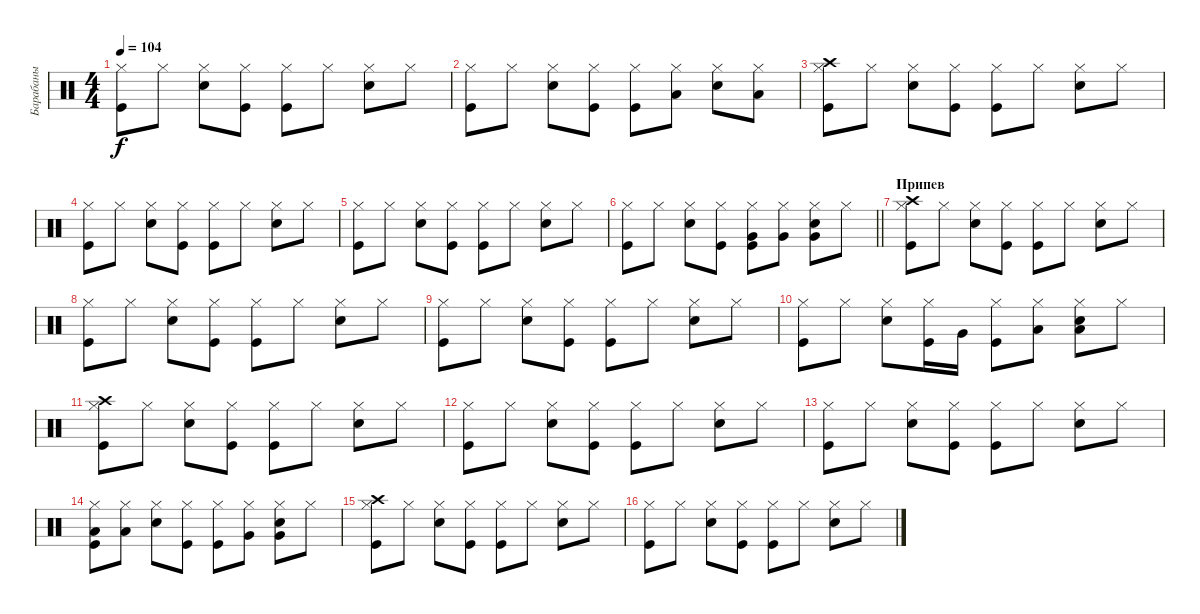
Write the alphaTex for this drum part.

\track ("Барабаны" "Барабаны") {instrument percussion}
\staff {score}
\articulation defaults
\ts (4 4)
\tempo 104
\clef neutral
\ks c
("Kick (hit)" "Hi-Hat (closed)").8{dy f} "Hi-Hat (closed)".8 ("Snare (hit) 2" "Hi-Hat (closed)").8 ("Kick (hit)" "Hi-Hat (closed)").8 ("Kick (hit)" "Hi-Hat (closed)").8 "Hi-Hat (closed)".8 ("Snare (hit) 2" "Hi-Hat (closed)").8 "Hi-Hat (closed)".8 |
("Kick (hit)" "Hi-Hat (closed)").8 "Hi-Hat (closed)".8 ("Snare (hit) 2" "Hi-Hat (closed)").8 ("Kick (hit)" "Hi-Hat (closed)").8 ("Kick (hit)" "Hi-Hat (closed)").8 ("Hi-Hat (closed)" "Low Tom (hit)").8 ("Snare (hit) 2" "Hi-Hat (closed)").8 ("Hi-Hat (closed)" "Low Tom (hit)").8 |
("Kick (hit)" "Hi-Hat (closed)" "Crash high (hit)").8 "Hi-Hat (closed)".8 ("Snare (hit) 2" "Hi-Hat (closed)").8 ("Kick (hit)" "Hi-Hat (closed)").8 ("Kick (hit)" "Hi-Hat (closed)").8 "Hi-Hat (closed)".8 ("Snare (hit) 2" "Hi-Hat (closed)").8 "Hi-Hat (closed)".8 |
("Kick (hit)" "Hi-Hat (closed)").8 "Hi-Hat (closed)".8 ("Snare (hit) 2" "Hi-Hat (closed)").8 ("Kick (hit)" "Hi-Hat (closed)").8 ("Kick (hit)" "Hi-Hat (closed)").8 "Hi-Hat (closed)".8 ("Snare (hit) 2" "Hi-Hat (closed)").8 "Hi-Hat (closed)".8 |
("Kick (hit)" "Hi-Hat (closed)").8 "Hi-Hat (closed)".8 ("Snare (hit) 2" "Hi-Hat (closed)").8 ("Kick (hit)" "Hi-Hat (closed)").8 ("Kick (hit)" "Hi-Hat (closed)").8 "Hi-Hat (closed)".8 ("Snare (hit) 2" "Hi-Hat (closed)").8 "Hi-Hat (closed)".8 |
\barLineRight lightlight
("Kick (hit)" "Hi-Hat (closed)").8 "Hi-Hat (closed)".8 ("Snare (hit) 2" "Hi-Hat (closed)").8 ("Kick (hit)" "Hi-Hat (closed)").8 ("Kick (hit)" "Hi-Hat (closed)" "Very Low Tom (hit)").8 ("Hi-Hat (closed)" "Very Low Tom (hit)").8 ("Snare (hit) 2" "Hi-Hat (closed)" "Very Low Tom (hit)").8 "Hi-Hat (closed)".8 |
\section ("" "Припев")
("Kick (hit)" "Hi-Hat (closed)" "Crash high (hit)").8 "Hi-Hat (closed)".8 ("Snare (hit) 2" "Hi-Hat (closed)").8 ("Kick (hit)" "Hi-Hat (closed)").8 ("Kick (hit)" "Hi-Hat (closed)").8 "Hi-Hat (closed)".8 ("Snare (hit) 2" "Hi-Hat (closed)").8 "Hi-Hat (closed)".8 |
("Kick (hit)" "Hi-Hat (closed)").8 "Hi-Hat (closed)".8 ("Snare (hit) 2" "Hi-Hat (closed)").8 ("Kick (hit)" "Hi-Hat (closed)").8 ("Kick (hit)" "Hi-Hat (closed)").8 "Hi-Hat (closed)".8 ("Snare (hit) 2" "Hi-Hat (closed)").8 "Hi-Hat (closed)".8 |
("Kick (hit)" "Hi-Hat (closed)").8 "Hi-Hat (closed)".8 ("Snare (hit) 2" "Hi-Hat (closed)").8 ("Kick (hit)" "Hi-Hat (closed)").8 ("Kick (hit)" "Hi-Hat (closed)").8 "Hi-Hat (closed)".8 ("Snare (hit) 2" "Hi-Hat (closed)").8 "Hi-Hat (closed)".8 |
("Kick (hit)" "Hi-Hat (closed)").8 "Hi-Hat (closed)".8 ("Snare (hit) 2" "Hi-Hat (closed)").8 ("Kick (hit)" "Hi-Hat (closed)").16 "Very Low Tom (hit)".16 ("Kick (hit)" "Hi-Hat (closed)").8 ("Hi-Hat (closed)" "Low Tom (hit)").8 ("Snare (hit) 2" "Hi-Hat (closed)" "Low Tom (hit)").8 "Hi-Hat (closed)".8 |
("Kick (hit)" "Hi-Hat (closed)" "Crash high (hit)").8 "Hi-Hat (closed)".8 ("Snare (hit) 2" "Hi-Hat (closed)").8 ("Kick (hit)" "Hi-Hat (closed)").8 ("Kick (hit)" "Hi-Hat (closed)").8 "Hi-Hat (closed)".8 ("Snare (hit) 2" "Hi-Hat (closed)").8 "Hi-Hat (closed)".8 |
("Kick (hit)" "Hi-Hat (closed)").8 "Hi-Hat (closed)".8 ("Snare (hit) 2" "Hi-Hat (closed)").8 ("Kick (hit)" "Hi-Hat (closed)").8 ("Kick (hit)" "Hi-Hat (closed)").8 "Hi-Hat (closed)".8 ("Snare (hit) 2" "Hi-Hat (closed)").8 "Hi-Hat (closed)".8 |
("Kick (hit)" "Hi-Hat (closed)").8 "Hi-Hat (closed)".8 ("Snare (hit) 2" "Hi-Hat (closed)").8 ("Kick (hit)" "Hi-Hat (closed)").8 ("Kick (hit)" "Hi-Hat (closed)").8 "Hi-Hat (closed)".8 ("Snare (hit) 2" "Hi-Hat (closed)").8 "Hi-Hat (closed)".8 |
("Kick (hit)" "Hi-Hat (closed)" "Low Floor Tom (hit)").8 ("Hi-Hat (closed)" "Low Floor Tom (hit)").8 ("Snare (hit) 2" "Hi-Hat (closed)").8 ("Kick (hit)" "Hi-Hat (closed)").8 ("Kick (hit)" "Hi-Hat (closed)").8 ("Hi-Hat (closed)" "Very Low Tom (hit)").8 ("Snare (hit) 2" "Hi-Hat (closed)" "Very Low Tom (hit)").8 "Hi-Hat (closed)".8 |
("Kick (hit)" "Hi-Hat (closed)" "Crash high (hit)").8 "Hi-Hat (closed)".8 ("Snare (hit) 2" "Hi-Hat (closed)").8 ("Kick (hit)" "Hi-Hat (closed)").8 ("Kick (hit)" "Hi-Hat (closed)").8 "Hi-Hat (closed)".8 ("Snare (hit) 2" "Hi-Hat (closed)").8 "Hi-Hat (closed)".8 |
("Kick (hit)" "Hi-Hat (closed)").8 "Hi-Hat (closed)".8 ("Snare (hit) 2" "Hi-Hat (closed)").8 ("Kick (hit)" "Hi-Hat (closed)").8 ("Kick (hit)" "Hi-Hat (closed)").8 "Hi-Hat (closed)".8 ("Snare (hit) 2" "Hi-Hat (closed)").8 "Hi-Hat (closed)".8
